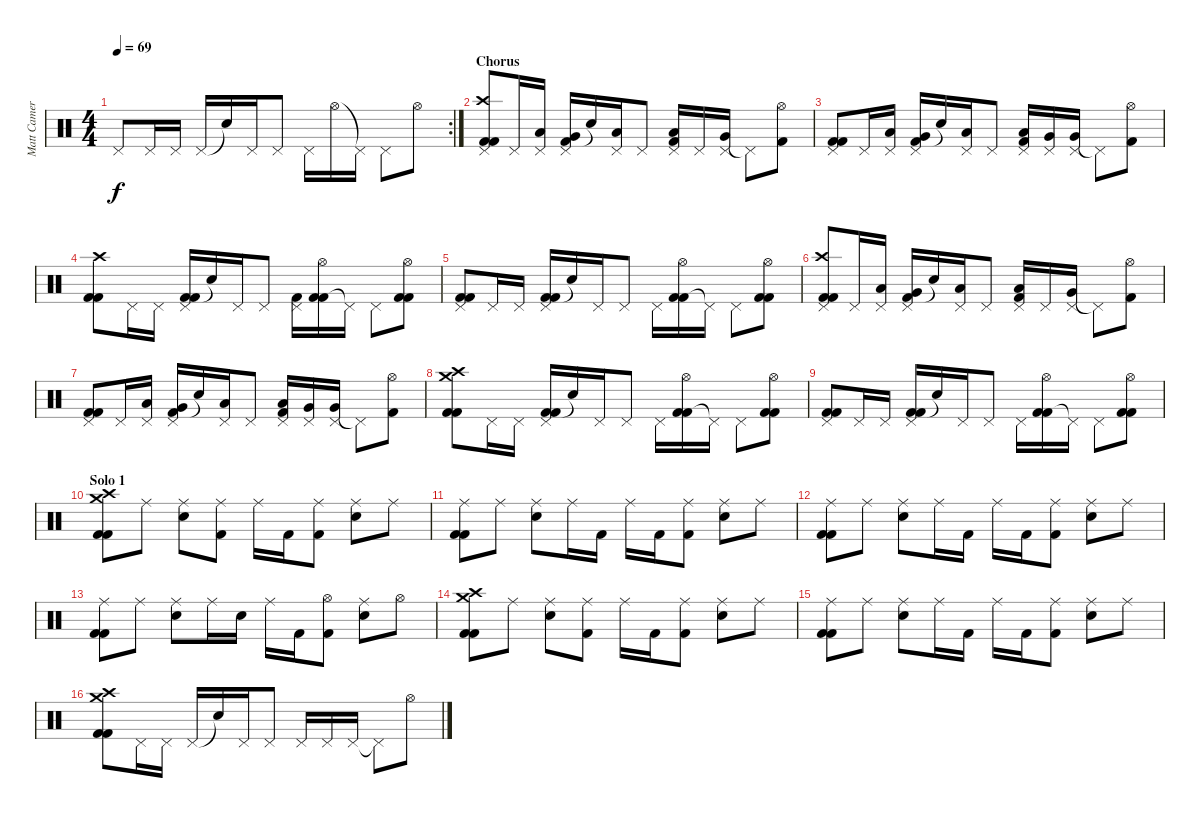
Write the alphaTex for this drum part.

\track ("Matt Cameron" "Matt Camer") {instrument percussion}
\staff {score}
\articulation defaults
\rc 2
\ts (4 4)
\tempo 69
\clef neutral
\ks c "Pedal Hi-Hat (hit)".8{dy f} "Pedal Hi-Hat (hit)".16 "Pedal Hi-Hat (hit)".16 "Pedal Hi-Hat (hit)".16 "Snare (hit)"{t}.16 "Pedal Hi-Hat (hit)".16 "Pedal Hi-Hat (hit)".8 "Pedal Hi-Hat (hit)".16 "Hi-Hat (open)".16 "Pedal Hi-Hat (hit)"{t}.16 "Pedal Hi-Hat (hit)".8 "Hi-Hat (open)".8
|
\section ("" "Chorus")
("Crash high (hit)" "Kick (hit) 2" "Kick (hit) 2" "Pedal Hi-Hat (hit)").8 "Pedal Hi-Hat (hit)".16 ("Low Tom (hit)" "Pedal Hi-Hat (hit)").16 ("Kick (hit) 2" "Very Low Tom (hit)" "Pedal Hi-Hat (hit)").16 "Snare (hit)"{t}.16 ("Low Tom (hit)" "Pedal Hi-Hat (hit)").16 "Pedal Hi-Hat (hit)".8 ("Kick (hit) 2" "Low Tom (hit)" "Pedal Hi-Hat (hit)").16 "Pedal Hi-Hat (hit)".16 ("Very Low Tom (hit)" "Pedal Hi-Hat (hit)").16 "Pedal Hi-Hat (hit)"{t}.8 ("Kick (hit) 2" "Hi-Hat (open)").8 |
("Kick (hit) 2" "Kick (hit) 2" "Pedal Hi-Hat (hit)").8 "Pedal Hi-Hat (hit)".16 ("Low Tom (hit)" "Pedal Hi-Hat (hit)").16 ("Kick (hit) 2" "Very Low Tom (hit)" "Pedal Hi-Hat (hit)").16 "Snare (hit)"{t}.16 ("Low Tom (hit)" "Pedal Hi-Hat (hit)").16 "Pedal Hi-Hat (hit)".8 ("Kick (hit) 2" "Low Tom (hit)" "Pedal Hi-Hat (hit)").16 ("Very Low Tom (hit)" "Pedal Hi-Hat (hit)").16 ("Very Low Tom (hit)" "Pedal Hi-Hat (hit)").16 "Pedal Hi-Hat (hit)"{t}.8 ("Kick (hit) 2" "Hi-Hat (open)").8 |
("Kick (hit) 2" "Kick (hit) 2" "Crash high (hit)").8 "Pedal Hi-Hat (hit)".16 "Pedal Hi-Hat (hit)".16 ("Kick (hit) 2" "Kick (hit) 2" "Pedal Hi-Hat (hit)").16 "Snare (hit)"{t}.16 "Pedal Hi-Hat (hit)".16 "Pedal Hi-Hat (hit)".8 ("Kick (hit) 2" "Pedal Hi-Hat (hit)").16 ("Kick (hit) 2" "Kick (hit) 2" "Hi-Hat (open)").16 "Pedal Hi-Hat (hit)"{t}.16 "Pedal Hi-Hat (hit)".8 ("Kick (hit) 2" "Kick (hit) 2" "Hi-Hat (open)").8 |
("Kick (hit) 2" "Kick (hit) 2" "Pedal Hi-Hat (hit)").8 "Pedal Hi-Hat (hit)".16 "Pedal Hi-Hat (hit)".16 ("Kick (hit) 2" "Kick (hit) 2" "Pedal Hi-Hat (hit)").16 "Snare (hit)"{t}.16 "Pedal Hi-Hat (hit)".16 "Pedal Hi-Hat (hit)".8 "Pedal Hi-Hat (hit)".16 ("Kick (hit) 2" "Kick (hit) 2" "Hi-Hat (open)").16 "Pedal Hi-Hat (hit)"{t}.16 "Pedal Hi-Hat (hit)".8 ("Kick (hit) 2" "Kick (hit) 2" "Hi-Hat (open)").8 |
("Crash high (hit)" "Kick (hit) 2" "Kick (hit) 2" "Pedal Hi-Hat (hit)").8 "Pedal Hi-Hat (hit)".16 ("Low Tom (hit)" "Pedal Hi-Hat (hit)").16 ("Kick (hit) 2" "Very Low Tom (hit)" "Pedal Hi-Hat (hit)").16 "Snare (hit)"{t}.16 ("Low Tom (hit)" "Pedal Hi-Hat (hit)").16 "Pedal Hi-Hat (hit)".8 ("Kick (hit) 2" "Low Tom (hit)" "Pedal Hi-Hat (hit)").16 "Pedal Hi-Hat (hit)".16 ("Very Low Tom (hit)" "Pedal Hi-Hat (hit)").16 "Pedal Hi-Hat (hit)"{t}.8 ("Kick (hit) 2" "Hi-Hat (open)").8 |
("Kick (hit) 2" "Kick (hit) 2" "Pedal Hi-Hat (hit)").8 "Pedal Hi-Hat (hit)".16 ("Low Tom (hit)" "Pedal Hi-Hat (hit)").16 ("Kick (hit) 2" "Very Low Tom (hit)" "Pedal Hi-Hat (hit)").16 "Snare (hit)"{t}.16 ("Low Tom (hit)" "Pedal Hi-Hat (hit)").16 "Pedal Hi-Hat (hit)".8 ("Kick (hit) 2" "Low Tom (hit)" "Pedal Hi-Hat (hit)").16 ("Very Low Tom (hit)" "Pedal Hi-Hat (hit)").16 ("Very Low Tom (hit)" "Pedal Hi-Hat (hit)").16 "Pedal Hi-Hat (hit)"{t}.8 ("Kick (hit) 2" "Hi-Hat (open)").8 |
("Crash medium (hit)" "Kick (hit) 2" "Kick (hit) 2" "Crash high (hit)").8 "Pedal Hi-Hat (hit)".16 "Pedal Hi-Hat (hit)".16 ("Kick (hit) 2" "Kick (hit) 2" "Pedal Hi-Hat (hit)").16 "Snare (hit)"{t}.16 "Pedal Hi-Hat (hit)".16 "Pedal Hi-Hat (hit)".8 "Pedal Hi-Hat (hit)".16 ("Kick (hit) 2" "Kick (hit) 2" "Hi-Hat (open)").16 "Pedal Hi-Hat (hit)"{t}.16 "Pedal Hi-Hat (hit)".8 ("Kick (hit) 2" "Kick (hit) 2" "Hi-Hat (open)").8 |
("Kick (hit) 2" "Kick (hit) 2" "Pedal Hi-Hat (hit)").8 "Pedal Hi-Hat (hit)".16 "Pedal Hi-Hat (hit)".16 ("Kick (hit) 2" "Kick (hit) 2" "Pedal Hi-Hat (hit)").16 "Snare (hit)"{t}.16 "Pedal Hi-Hat (hit)".16 "Pedal Hi-Hat (hit)".8 "Pedal Hi-Hat (hit)".16 ("Kick (hit) 2" "Kick (hit) 2" "Hi-Hat (open)").16 "Pedal Hi-Hat (hit)"{t}.16 "Pedal Hi-Hat (hit)".8 ("Kick (hit) 2" "Kick (hit) 2" "Hi-Hat (open)").8 |
\section ("" "Solo 1")
("Crash medium (hit)" "Kick (hit) 2" "Kick (hit) 2" "Crash high (hit)").8 "Ride (middle)".8 ("Electric Snare (hit)" "Ride (middle)").8 ("Kick (hit) 2" "Ride (middle)").8 "Ride (middle)".16 "Kick (hit) 2".16 ("Kick (hit) 2" "Ride (middle)").8 ("Electric Snare (hit)" "Ride (middle)").8 "Ride (middle)".8 |
("Kick (hit) 2" "Kick (hit) 2" "Ride (middle)").8 "Ride (middle)".8 ("Electric Snare (hit)" "Ride (middle)").8 "Ride (middle)".16 "Kick (hit) 2".16 "Ride (middle)".16 "Kick (hit) 2".16 ("Kick (hit) 2" "Ride (middle)").8 ("Electric Snare (hit)" "Ride (middle)").8 "Ride (middle)".8 |
("Kick (hit) 2" "Kick (hit) 2" "Ride (middle)").8 "Ride (middle)".8 ("Electric Snare (hit)" "Ride (middle)").8 "Ride (middle)".16 "Kick (hit) 2".16 "Ride (middle)".16 "Kick (hit) 2".16 ("Kick (hit) 2" "Ride (middle)").8 ("Electric Snare (hit)" "Ride (middle)").8 "Ride (middle)".8 |
("Kick (hit) 2" "Kick (hit) 2" "Ride (middle)").8 "Ride (middle)".8 ("Electric Snare (hit)" "Ride (middle)").8 "Ride (middle)".16 "Electric Snare (hit)".16 "Ride (middle)".16 "Kick (hit) 2".16 ("Kick (hit) 2" "Hi-Hat (open)").8 ("Electric Snare (hit)" "Ride (middle)").8 "Hi-Hat (open)".8 |
("Crash medium (hit)" "Kick (hit) 2" "Kick (hit) 2" "Crash high (hit)").8 "Ride (middle)".8 ("Electric Snare (hit)" "Ride (middle)").8 ("Kick (hit) 2" "Ride (middle)").8 "Ride (middle)".16 "Kick (hit) 2".16 ("Kick (hit) 2" "Ride (middle)").8 ("Electric Snare (hit)" "Ride (middle)").8 "Ride (middle)".8 |
("Kick (hit) 2" "Kick (hit) 2" "Ride (middle)").8 "Ride (middle)".8 ("Electric Snare (hit)" "Ride (middle)").8 "Ride (middle)".16 "Kick (hit) 2".16 "Ride (middle)".16 "Kick (hit) 2".16 ("Kick (hit) 2" "Ride (middle)").8 ("Electric Snare (hit)" "Ride (middle)").8 "Ride (middle)".8 |
("Crash medium (hit)" "Kick (hit) 2" "Kick (hit) 2" "Crash high (hit)").8 "Pedal Hi-Hat (hit)".16 "Pedal Hi-Hat (hit)".16 "Pedal Hi-Hat (hit)".16 "Snare (hit)"{t}.16 "Pedal Hi-Hat (hit)".16 "Pedal Hi-Hat (hit)".8 "Pedal Hi-Hat (hit)".16 "Pedal Hi-Hat (hit)".16 "Pedal Hi-Hat (hit)".16 "Pedal Hi-Hat (hit)"{t}.8 "Hi-Hat (open)".8
